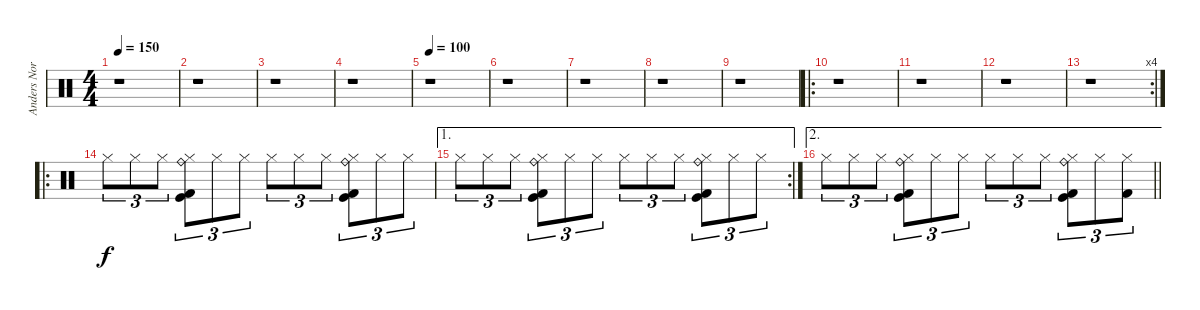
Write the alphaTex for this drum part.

\track ("Anders Nordin" "Anders Nor") {instrument percussion}
\staff {score}
\articulation defaults
\ts (4 4)
\tempo 150
\clef neutral
\ks c
r.1{dy f} |
r.1 |
r.1 |
r.1 |
\tempo 100
r.1 |
r.1 |
r.1 |
r.1 |
r.1 |
\ro
r.1 |
r.1 |
r.1 |
\rc 4
r.1 |
\ro "Hi-Hat (closed)".8{tu (3 2)} "Hi-Hat (closed)".8{tu (3 2)} "Hi-Hat (closed)".8{tu (3 2)}
("Hi-Hat (closed)" "Ride (bell)" "Kick (hit) 2" "Kick (hit)").8{tu (3 2)} "Hi-Hat (closed)".8{tu (3 2)} "Hi-Hat (closed)".8{tu (3 2)} "Hi-Hat (closed)".8{tu (3 2)} "Hi-Hat (closed)".8{tu (3 2)} "Hi-Hat (closed)".8{tu (3 2)} ("Hi-Hat (closed)" "Ride (bell)" "Kick (hit) 2" "Kick (hit)").8{tu (3 2)} "Hi-Hat (closed)".8{tu (3 2)} "Hi-Hat (closed)".8{tu (3 2)} |
\ae 1
\rc 2 "Hi-Hat (closed)".8{tu (3 2)} "Hi-Hat (closed)".8{tu (3 2)} "Hi-Hat (closed)".8{tu (3 2)}
("Hi-Hat (closed)" "Ride (bell)" "Kick (hit) 2" "Kick (hit)").8{tu (3 2)} "Hi-Hat (closed)".8{tu (3 2)} "Hi-Hat (closed)".8{tu (3 2)} "Hi-Hat (closed)".8{tu (3 2)} "Hi-Hat (closed)".8{tu (3 2)} "Hi-Hat (closed)".8{tu (3 2)} ("Hi-Hat (closed)" "Ride (bell)" "Kick (hit) 2" "Kick (hit)").8{tu (3 2)} "Hi-Hat (closed)".8{tu (3 2)} "Hi-Hat (closed)".8{tu (3 2)} |
\ae 2
\barLineRight lightlight "Hi-Hat (closed)".8{tu (3 2)} "Hi-Hat (closed)".8{tu (3 2)} "Hi-Hat (closed)".8{tu (3 2)}
("Hi-Hat (closed)" "Ride (bell)" "Kick (hit) 2" "Kick (hit)").8{tu (3 2)} "Hi-Hat (closed)".8{tu (3 2)} "Hi-Hat (closed)".8{tu (3 2)} "Hi-Hat (closed)".8{tu (3 2)} "Hi-Hat (closed)".8{tu (3 2)} "Hi-Hat (closed)".8{tu (3 2)} ("Hi-Hat (closed)" "Ride (bell)" "Kick (hit) 2" "Kick (hit)").8{tu (3 2)} "Hi-Hat (closed)".8{tu (3 2)} ("Hi-Hat (closed)" "Kick (hit) 2").8{tu (3 2)}
